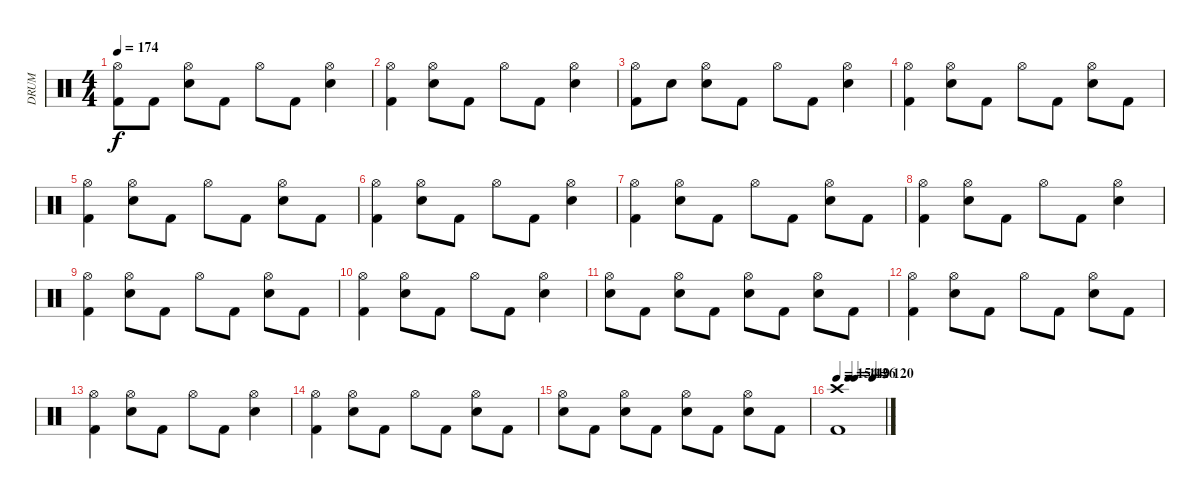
\track ("DRUM" "DRUM") {instrument percussion}
\staff {score}
\articulation defaults
\ts (4 4)
\tempo 174
\clef neutral
\ks c
("Hi-Hat (open)" "Kick (hit) 2").8{dy f} "Kick (hit) 2".8 ("Hi-Hat (open)" "Snare (hit) 2").8 "Kick (hit) 2".8 "Hi-Hat (open)".8 "Kick (hit) 2".8 ("Hi-Hat (open)" "Snare (hit) 2").4 |
("Hi-Hat (open)" "Kick (hit) 2").4 ("Hi-Hat (open)" "Snare (hit) 2").8 "Kick (hit) 2".8 "Hi-Hat (open)".8 "Kick (hit) 2".8 ("Hi-Hat (open)" "Snare (hit) 2").4 |
("Hi-Hat (open)" "Kick (hit) 2").8 "Snare (hit) 2".8 ("Hi-Hat (open)" "Snare (hit) 2").8 "Kick (hit) 2".8 "Hi-Hat (open)".8 "Kick (hit) 2".8 ("Hi-Hat (open)" "Snare (hit) 2").4 |
("Hi-Hat (open)" "Kick (hit) 2").4 ("Hi-Hat (open)" "Snare (hit) 2").8 "Kick (hit) 2".8 "Hi-Hat (open)".8 "Kick (hit) 2".8 ("Hi-Hat (open)" "Snare (hit) 2").8 "Kick (hit) 2".8 |
("Hi-Hat (open)" "Kick (hit) 2").4 ("Hi-Hat (open)" "Snare (hit) 2").8 "Kick (hit) 2".8 "Hi-Hat (open)".8 "Kick (hit) 2".8 ("Hi-Hat (open)" "Snare (hit) 2").8 "Kick (hit) 2".8 |
("Hi-Hat (open)" "Kick (hit) 2").4 ("Hi-Hat (open)" "Snare (hit) 2").8 "Kick (hit) 2".8 "Hi-Hat (open)".8 "Kick (hit) 2".8 ("Hi-Hat (open)" "Snare (hit) 2").4 |
("Hi-Hat (open)" "Kick (hit) 2").4 ("Hi-Hat (open)" "Snare (hit) 2").8 "Kick (hit) 2".8 "Hi-Hat (open)".8 "Kick (hit) 2".8 ("Hi-Hat (open)" "Snare (hit) 2").8 "Kick (hit) 2".8 |
("Hi-Hat (open)" "Kick (hit) 2").4 ("Hi-Hat (open)" "Snare (hit) 2").8 "Kick (hit) 2".8 "Hi-Hat (open)".8 "Kick (hit) 2".8 ("Hi-Hat (open)" "Snare (hit) 2").4 |
("Hi-Hat (open)" "Kick (hit) 2").4 ("Hi-Hat (open)" "Snare (hit) 2").8 "Kick (hit) 2".8 "Hi-Hat (open)".8 "Kick (hit) 2".8 ("Hi-Hat (open)" "Snare (hit) 2").8 "Kick (hit) 2".8 |
("Hi-Hat (open)" "Kick (hit) 2").4 ("Hi-Hat (open)" "Snare (hit) 2").8 "Kick (hit) 2".8 "Hi-Hat (open)".8 "Kick (hit) 2".8 ("Hi-Hat (open)" "Snare (hit) 2").4 |
("Hi-Hat (open)" "Snare (hit) 2").8 "Kick (hit) 2".8 ("Hi-Hat (open)" "Snare (hit) 2").8 "Kick (hit) 2".8 ("Hi-Hat (open)" "Snare (hit) 2").8 "Kick (hit) 2".8 ("Hi-Hat (open)" "Snare (hit) 2").8 "Kick (hit) 2".8 |
("Hi-Hat (open)" "Kick (hit) 2").4 ("Hi-Hat (open)" "Snare (hit) 2").8 "Kick (hit) 2".8 "Hi-Hat (open)".8 "Kick (hit) 2".8 ("Hi-Hat (open)" "Snare (hit) 2").8 "Kick (hit) 2".8 |
("Hi-Hat (open)" "Kick (hit) 2").4 ("Hi-Hat (open)" "Snare (hit) 2").8 "Kick (hit) 2".8 "Hi-Hat (open)".8 "Kick (hit) 2".8 ("Hi-Hat (open)" "Snare (hit) 2").4 |
("Hi-Hat (open)" "Kick (hit) 2").4 ("Hi-Hat (open)" "Snare (hit) 2").8 "Kick (hit) 2".8 "Hi-Hat (open)".8 "Kick (hit) 2".8 ("Hi-Hat (open)" "Snare (hit) 2").8 "Kick (hit) 2".8 |
("Hi-Hat (open)" "Snare (hit) 2").8 "Kick (hit) 2".8 ("Hi-Hat (open)" "Snare (hit) 2").8 "Kick (hit) 2".8 ("Hi-Hat (open)" "Snare (hit) 2").8 "Kick (hit) 2".8 ("Hi-Hat (open)" "Snare (hit) 2").8 "Kick (hit) 2".8 |
\tempo 154
\tempo (149 0.25)
\tempo (126 0.375)
\tempo (120 0.75)
("Crash high (hit)" "Kick (hit) 2").1
